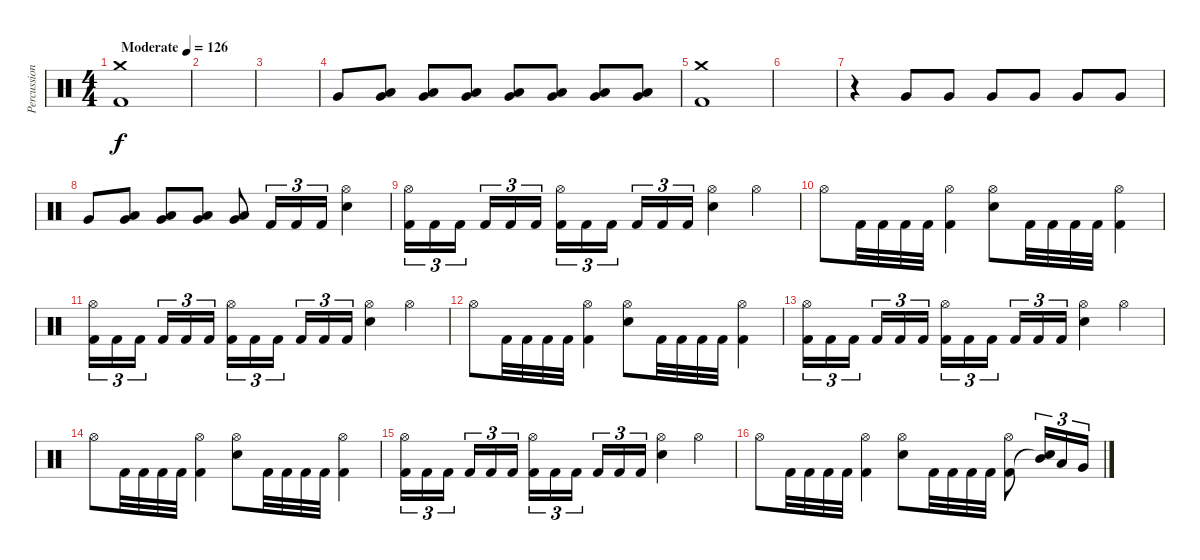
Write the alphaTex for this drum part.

\track ("Percussion" "Percussion") {instrument percussion}
\staff {score}
\articulation defaults
\ts (4 4)
\tempo (126 "Moderate")
\clef neutral
\ks c
("Crash medium (hit)" "Kick (hit) 2").1{dy f} |
|
|
"Very Low Tom (hit)".8 ("Low Floor Tom (hit)" "Very Low Tom (hit)").8 ("Low Floor Tom (hit)" "Very Low Tom (hit)").8 ("Low Floor Tom (hit)" "Very Low Tom (hit)").8 ("Low Floor Tom (hit)" "Very Low Tom (hit)").8 ("Low Floor Tom (hit)" "Very Low Tom (hit)").8 ("Low Floor Tom (hit)" "Very Low Tom (hit)").8 ("Low Floor Tom (hit)" "Very Low Tom (hit)").8 |
("Crash medium (hit)" "Kick (hit) 2").1 |
|
r.4 "Very Low Tom (hit)".8 "Very Low Tom (hit)".8 "Very Low Tom (hit)".8 "Very Low Tom (hit)".8 "Very Low Tom (hit)".8 "Very Low Tom (hit)".8 |
"Very Low Tom (hit)".8 ("Low Floor Tom (hit)" "Very Low Tom (hit)").8 ("Low Floor Tom (hit)" "Very Low Tom (hit)").8 ("Low Floor Tom (hit)" "Very Low Tom (hit)").8 ("Low Floor Tom (hit)" "Very Low Tom (hit)").8 "Kick (hit) 2".16{tu (3 2)} "Kick (hit) 2".16{tu (3 2)} "Kick (hit) 2".16{tu (3 2)} ("Hi-Hat (open)" "Electric Snare (hit)").4 |
("Hi-Hat (open)" "Kick (hit) 2").16{tu (3 2)} "Kick (hit) 2".16{tu (3 2)} "Kick (hit) 2".16{tu (3 2) beam splitsecondary} "Kick (hit) 2".16{tu (3 2)} "Kick (hit) 2".16{tu (3 2)} "Kick (hit) 2".16{tu (3 2)} ("Hi-Hat (open)" "Kick (hit) 2").16{tu (3 2)} "Kick (hit) 2".16{tu (3 2)} "Kick (hit) 2".16{tu (3 2) beam splitsecondary} "Kick (hit) 2".16{tu (3 2)} "Kick (hit) 2".16{tu (3 2)} "Kick (hit) 2".16{tu (3 2)} ("Hi-Hat (open)" "Electric Snare (hit)").4 "Hi-Hat (open)".4 |
"Hi-Hat (open)".8 "Kick (hit) 2".32 "Kick (hit) 2".32 "Kick (hit) 2".32 "Kick (hit) 2".32 ("Hi-Hat (open)" "Kick (hit) 2").4 ("Hi-Hat (open)" "Electric Snare (hit)").8 "Kick (hit) 2".32 "Kick (hit) 2".32 "Kick (hit) 2".32 "Kick (hit) 2".32 ("Hi-Hat (open)" "Kick (hit) 2").4 |
("Hi-Hat (open)" "Kick (hit) 2").16{tu (3 2)} "Kick (hit) 2".16{tu (3 2)} "Kick (hit) 2".16{tu (3 2) beam splitsecondary} "Kick (hit) 2".16{tu (3 2)} "Kick (hit) 2".16{tu (3 2)} "Kick (hit) 2".16{tu (3 2)} ("Hi-Hat (open)" "Kick (hit) 2").16{tu (3 2)} "Kick (hit) 2".16{tu (3 2)} "Kick (hit) 2".16{tu (3 2) beam splitsecondary} "Kick (hit) 2".16{tu (3 2)} "Kick (hit) 2".16{tu (3 2)} "Kick (hit) 2".16{tu (3 2)} ("Hi-Hat (open)" "Electric Snare (hit)").4 "Hi-Hat (open)".4 |
"Hi-Hat (open)".8 "Kick (hit) 2".32 "Kick (hit) 2".32 "Kick (hit) 2".32 "Kick (hit) 2".32 ("Hi-Hat (open)" "Kick (hit) 2").4 ("Hi-Hat (open)" "Electric Snare (hit)").8 "Kick (hit) 2".32 "Kick (hit) 2".32 "Kick (hit) 2".32 "Kick (hit) 2".32 ("Hi-Hat (open)" "Kick (hit) 2").4 |
("Hi-Hat (open)" "Kick (hit) 2").16{tu (3 2)} "Kick (hit) 2".16{tu (3 2)} "Kick (hit) 2".16{tu (3 2) beam splitsecondary} "Kick (hit) 2".16{tu (3 2)} "Kick (hit) 2".16{tu (3 2)} "Kick (hit) 2".16{tu (3 2)} ("Hi-Hat (open)" "Kick (hit) 2").16{tu (3 2)} "Kick (hit) 2".16{tu (3 2)} "Kick (hit) 2".16{tu (3 2) beam splitsecondary} "Kick (hit) 2".16{tu (3 2)} "Kick (hit) 2".16{tu (3 2)} "Kick (hit) 2".16{tu (3 2)} ("Hi-Hat (open)" "Electric Snare (hit)").4 "Hi-Hat (open)".4 |
"Hi-Hat (open)".8 "Kick (hit) 2".32 "Kick (hit) 2".32 "Kick (hit) 2".32 "Kick (hit) 2".32 ("Hi-Hat (open)" "Kick (hit) 2").4 ("Hi-Hat (open)" "Electric Snare (hit)").8 "Kick (hit) 2".32 "Kick (hit) 2".32 "Kick (hit) 2".32 "Kick (hit) 2".32 ("Hi-Hat (open)" "Kick (hit) 2").4 |
("Hi-Hat (open)" "Kick (hit) 2").16{tu (3 2)} "Kick (hit) 2".16{tu (3 2)} "Kick (hit) 2".16{tu (3 2) beam splitsecondary} "Kick (hit) 2".16{tu (3 2)} "Kick (hit) 2".16{tu (3 2)} "Kick (hit) 2".16{tu (3 2)} ("Hi-Hat (open)" "Kick (hit) 2").16{tu (3 2)} "Kick (hit) 2".16{tu (3 2)} "Kick (hit) 2".16{tu (3 2) beam splitsecondary} "Kick (hit) 2".16{tu (3 2)} "Kick (hit) 2".16{tu (3 2)} "Kick (hit) 2".16{tu (3 2)} ("Hi-Hat (open)" "Electric Snare (hit)").4 "Hi-Hat (open)".4 |
"Hi-Hat (open)".8 "Kick (hit) 2".32 "Kick (hit) 2".32 "Kick (hit) 2".32 "Kick (hit) 2".32 ("Hi-Hat (open)" "Kick (hit) 2").4 ("Hi-Hat (open)" "Electric Snare (hit)").8 "Kick (hit) 2".32 "Kick (hit) 2".32 "Kick (hit) 2".32 "Kick (hit) 2".32 ("Hi-Hat (open)" "Kick (hit) 2").8 ("Mid Tom (hit)" "Snare (hit)"{t}).16{tu (3 2)} "Low Tom (hit)".16{tu (3 2)} "Very Low Tom (hit)".16{tu (3 2)}
